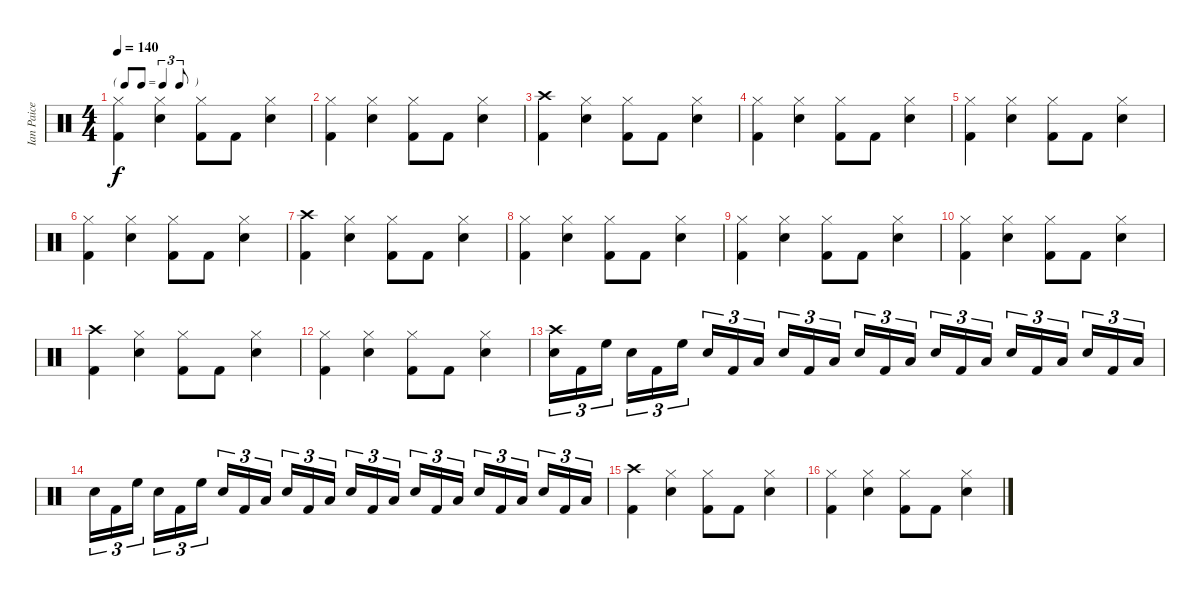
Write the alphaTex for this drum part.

\track ("Ian Paice" "Ian Paice") {instrument percussion}
\staff {score}
\articulation defaults
\ts (4 4)
\tf triplet8th
\tempo 140
\clef neutral
\ks c
("Hi-Hat (closed)" "Kick (hit) 2").4{dy f} ("Hi-Hat (closed)" "Electric Snare (hit)").4 ("Hi-Hat (closed)" "Kick (hit) 2").8 "Kick (hit) 2".8 ("Hi-Hat (closed)" "Electric Snare (hit)").4 |
("Hi-Hat (closed)" "Kick (hit) 2").4 ("Hi-Hat (closed)" "Electric Snare (hit)").4 ("Hi-Hat (closed)" "Kick (hit) 2").8 "Kick (hit) 2".8 ("Hi-Hat (closed)" "Electric Snare (hit)").4 |
("Crash high (hit)" "Kick (hit) 2").4 ("Hi-Hat (closed)" "Electric Snare (hit)").4 ("Hi-Hat (closed)" "Kick (hit) 2").8 "Kick (hit) 2".8 ("Hi-Hat (closed)" "Electric Snare (hit)").4 |
("Hi-Hat (closed)" "Kick (hit) 2").4 ("Hi-Hat (closed)" "Electric Snare (hit)").4 ("Hi-Hat (closed)" "Kick (hit) 2").8 "Kick (hit) 2".8 ("Hi-Hat (closed)" "Electric Snare (hit)").4 |
("Hi-Hat (closed)" "Kick (hit) 2").4 ("Hi-Hat (closed)" "Electric Snare (hit)").4 ("Hi-Hat (closed)" "Kick (hit) 2").8 "Kick (hit) 2".8 ("Hi-Hat (closed)" "Electric Snare (hit)").4 |
("Hi-Hat (closed)" "Kick (hit) 2").4 ("Hi-Hat (closed)" "Electric Snare (hit)").4 ("Hi-Hat (closed)" "Kick (hit) 2").8 "Kick (hit) 2".8 ("Hi-Hat (closed)" "Electric Snare (hit)").4 |
("Crash high (hit)" "Kick (hit) 2").4 ("Hi-Hat (closed)" "Electric Snare (hit)").4 ("Hi-Hat (closed)" "Kick (hit) 2").8 "Kick (hit) 2".8 ("Hi-Hat (closed)" "Electric Snare (hit)").4 |
("Hi-Hat (closed)" "Kick (hit) 2").4 ("Hi-Hat (closed)" "Electric Snare (hit)").4 ("Hi-Hat (closed)" "Kick (hit) 2").8 "Kick (hit) 2".8 ("Hi-Hat (closed)" "Electric Snare (hit)").4 |
("Hi-Hat (closed)" "Kick (hit) 2").4 ("Hi-Hat (closed)" "Electric Snare (hit)").4 ("Hi-Hat (closed)" "Kick (hit) 2").8 "Kick (hit) 2".8 ("Hi-Hat (closed)" "Electric Snare (hit)").4 |
("Hi-Hat (closed)" "Kick (hit) 2").4 ("Hi-Hat (closed)" "Electric Snare (hit)").4 ("Hi-Hat (closed)" "Kick (hit) 2").8 "Kick (hit) 2".8 ("Hi-Hat (closed)" "Electric Snare (hit)").4 |
("Crash high (hit)" "Kick (hit) 2").4 ("Hi-Hat (closed)" "Electric Snare (hit)").4 ("Hi-Hat (closed)" "Kick (hit) 2").8 "Kick (hit) 2".8 ("Hi-Hat (closed)" "Electric Snare (hit)").4 |
("Hi-Hat (closed)" "Kick (hit) 2").4 ("Hi-Hat (closed)" "Electric Snare (hit)").4 ("Hi-Hat (closed)" "Kick (hit) 2").8 "Kick (hit) 2".8 ("Hi-Hat (closed)" "Electric Snare (hit)").4 |
("Crash high (hit)" "Electric Snare (hit)").16{tu (3 2)} "Kick (hit) 2".16{tu (3 2)} "High Floor Tom (hit)".16{tu (3 2) beam splitsecondary} "Electric Snare (hit)".16{tu (3 2)} "Kick (hit) 2".16{tu (3 2)} "High Floor Tom (hit)".16{tu (3 2)} "Electric Snare (hit)".16{tu (3 2)} "Kick (hit) 2".16{tu (3 2)} "Low Tom (hit)".16{tu (3 2) beam splitsecondary} "Electric Snare (hit)".16{tu (3 2)} "Kick (hit) 2".16{tu (3 2)} "Low Tom (hit)".16{tu (3 2)} "Electric Snare (hit)".16{tu (3 2)} "Kick (hit) 2".16{tu (3 2)} "Low Tom (hit)".16{tu (3 2) beam splitsecondary} "Electric Snare (hit)".16{tu (3 2)} "Kick (hit) 2".16{tu (3 2)} "Low Tom (hit)".16{tu (3 2)} "Electric Snare (hit)".16{tu (3 2)} "Kick (hit) 2".16{tu (3 2)} "Low Tom (hit)".16{tu (3 2) beam splitsecondary} "Electric Snare (hit)".16{tu (3 2)} "Kick (hit) 2".16{tu (3 2)} "Low Tom (hit)".16{tu (3 2)} |
"Electric Snare (hit)".16{tu (3 2)} "Kick (hit) 2".16{tu (3 2)} "High Floor Tom (hit)".16{tu (3 2) beam splitsecondary} "Electric Snare (hit)".16{tu (3 2)} "Kick (hit) 2".16{tu (3 2)} "High Floor Tom (hit)".16{tu (3 2)} "Electric Snare (hit)".16{tu (3 2)} "Kick (hit) 2".16{tu (3 2)} "Low Tom (hit)".16{tu (3 2) beam splitsecondary} "Electric Snare (hit)".16{tu (3 2)} "Kick (hit) 2".16{tu (3 2)} "Low Tom (hit)".16{tu (3 2)} "Electric Snare (hit)".16{tu (3 2)} "Kick (hit) 2".16{tu (3 2)} "Low Tom (hit)".16{tu (3 2) beam splitsecondary} "Electric Snare (hit)".16{tu (3 2)} "Kick (hit) 2".16{tu (3 2)} "Low Tom (hit)".16{tu (3 2)} "Electric Snare (hit)".16{tu (3 2)} "Kick (hit) 2".16{tu (3 2)} "Low Tom (hit)".16{tu (3 2) beam splitsecondary} "Electric Snare (hit)".16{tu (3 2)} "Kick (hit) 2".16{tu (3 2)} "Low Tom (hit)".16{tu (3 2)} |
("Crash high (hit)" "Kick (hit) 2").4 ("Hi-Hat (closed)" "Electric Snare (hit)").4 ("Hi-Hat (closed)" "Kick (hit) 2").8 "Kick (hit) 2".8 ("Hi-Hat (closed)" "Electric Snare (hit)").4 |
("Hi-Hat (closed)" "Kick (hit) 2").4 ("Hi-Hat (closed)" "Electric Snare (hit)").4 ("Hi-Hat (closed)" "Kick (hit) 2").8 "Kick (hit) 2".8 ("Hi-Hat (closed)" "Electric Snare (hit)").4
